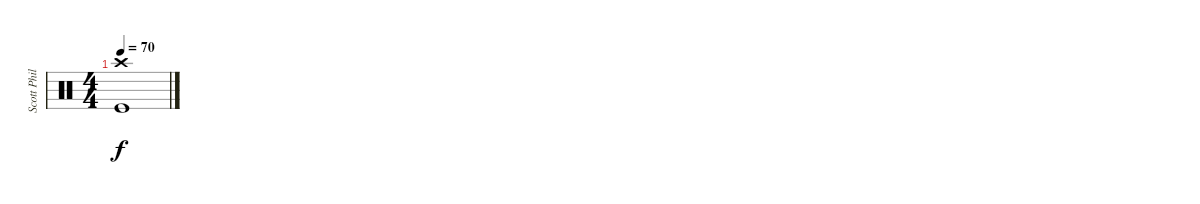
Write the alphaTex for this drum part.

\track ("Scott Phillips" "Scott Phil") {instrument percussion}
\staff {score}
\articulation defaults
\ts (4 4)
\tempo 70
\clef neutral
\ks c
("Crash high (hit)" "Kick (hit)").1{dy f}
